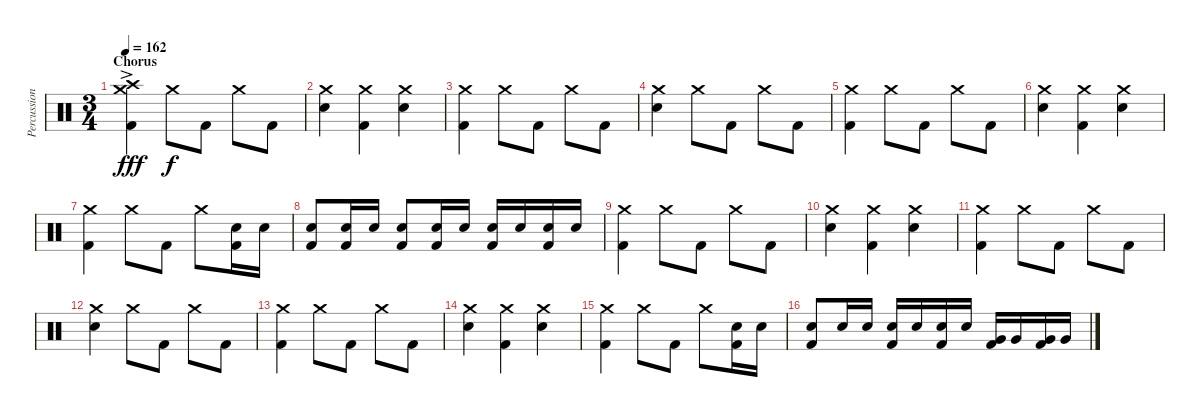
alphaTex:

\track ("Percussion" "Percussion") {instrument percussion}
\staff {score}
\articulation defaults
\ts (3 4)
\section ("" "Chorus")
\tempo 162
\clef neutral
\ks c
("Crash high (hit)"{ac} "Crash medium (hit)" "Kick (hit) 2").4{dy fff} "Crash medium (hit)".8{dy f} "Kick (hit) 2".8 "Crash medium (hit)".8 "Kick (hit) 2".8 |
("Crash medium (hit)" "Electric Snare (hit)").4 ("Crash medium (hit)" "Kick (hit) 2").4 ("Crash medium (hit)" "Electric Snare (hit)").4 |
("Crash medium (hit)" "Kick (hit) 2").4 "Crash medium (hit)".8 "Kick (hit) 2".8 "Crash medium (hit)".8 "Kick (hit) 2".8 |
("Crash medium (hit)" "Electric Snare (hit)").4 "Crash medium (hit)".8 "Kick (hit) 2".8 "Crash medium (hit)".8 "Kick (hit) 2".8 |
("Crash medium (hit)" "Kick (hit) 2").4 "Crash medium (hit)".8 "Kick (hit) 2".8 "Crash medium (hit)".8 "Kick (hit) 2".8 |
("Crash medium (hit)" "Electric Snare (hit)").4 ("Crash medium (hit)" "Kick (hit) 2").4 ("Crash medium (hit)" "Electric Snare (hit)").4 |
("Crash medium (hit)" "Kick (hit) 2").4 "Crash medium (hit)".8 "Kick (hit) 2".8 "Crash medium (hit)".8 ("Electric Snare (hit)" "Kick (hit) 2").16 "Electric Snare (hit)".16 |
("Electric Snare (hit)" "Kick (hit) 2").8 ("Electric Snare (hit)" "Kick (hit) 2").16 "Electric Snare (hit)".16 ("Electric Snare (hit)" "Kick (hit) 2").8 ("Electric Snare (hit)" "Kick (hit) 2").16 "Electric Snare (hit)".16 ("Electric Snare (hit)" "Kick (hit) 2").16 "Electric Snare (hit)".16 ("Electric Snare (hit)" "Kick (hit) 2").16 "Electric Snare (hit)".16 |
("Crash medium (hit)" "Kick (hit) 2").4 "Crash medium (hit)".8 "Kick (hit) 2".8 "Crash medium (hit)".8 "Kick (hit) 2".8 |
("Crash medium (hit)" "Electric Snare (hit)").4 ("Crash medium (hit)" "Kick (hit) 2").4 ("Crash medium (hit)" "Electric Snare (hit)").4 |
("Crash medium (hit)" "Kick (hit) 2").4 "Crash medium (hit)".8 "Kick (hit) 2".8 "Crash medium (hit)".8 "Kick (hit) 2".8 |
("Crash medium (hit)" "Electric Snare (hit)").4 "Crash medium (hit)".8 "Kick (hit) 2".8 "Crash medium (hit)".8 "Kick (hit) 2".8 |
("Crash medium (hit)" "Kick (hit) 2").4 "Crash medium (hit)".8 "Kick (hit) 2".8 "Crash medium (hit)".8 "Kick (hit) 2".8 |
("Crash medium (hit)" "Electric Snare (hit)").4 ("Crash medium (hit)" "Kick (hit) 2").4 ("Crash medium (hit)" "Electric Snare (hit)").4 |
("Crash medium (hit)" "Kick (hit) 2").4 "Crash medium (hit)".8 "Kick (hit) 2".8 "Crash medium (hit)".8 ("Electric Snare (hit)" "Kick (hit) 2").16 "Electric Snare (hit)".16 |
("Electric Snare (hit)" "Kick (hit) 2").8 "Electric Snare (hit)".16 "Electric Snare (hit)".16 ("Electric Snare (hit)" "Kick (hit) 2").16 "Electric Snare (hit)".16 ("Electric Snare (hit)" "Kick (hit) 2").16 "Electric Snare (hit)".16 ("Very Low Tom (hit)" "Kick (hit) 2").16 "Very Low Tom (hit)".16 ("Very Low Tom (hit)" "Kick (hit) 2").16 "Very Low Tom (hit)".16
